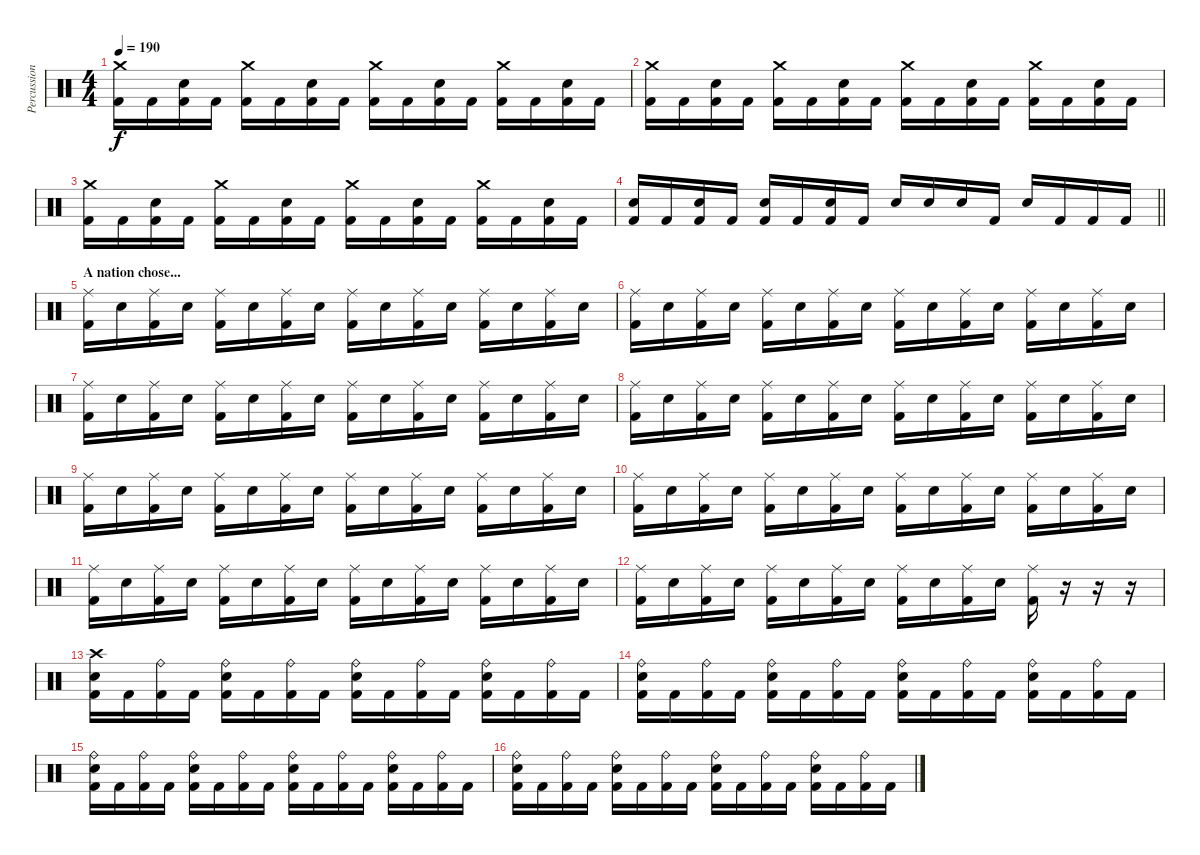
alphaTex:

\track ("Percussion" "Percussion") {instrument percussion}
\staff {score}
\articulation defaults
\ts (4 4)
\tempo 190
\clef neutral
\ks c
("Crash medium (hit)" "Kick (hit) 2").16{dy f} "Kick (hit) 2".16 ("Snare (hit) 2" "Kick (hit) 2").16 "Kick (hit) 2".16 ("Crash medium (hit)" "Kick (hit) 2").16 "Kick (hit) 2".16 ("Snare (hit) 2" "Kick (hit) 2").16 "Kick (hit) 2".16 ("Crash medium (hit)" "Kick (hit) 2").16 "Kick (hit) 2".16 ("Snare (hit) 2" "Kick (hit) 2").16 "Kick (hit) 2".16 ("Crash medium (hit)" "Kick (hit) 2").16 "Kick (hit) 2".16 ("Snare (hit) 2" "Kick (hit) 2").16 "Kick (hit) 2".16 |
("Crash medium (hit)" "Kick (hit) 2").16 "Kick (hit) 2".16 ("Snare (hit) 2" "Kick (hit) 2").16 "Kick (hit) 2".16 ("Crash medium (hit)" "Kick (hit) 2").16 "Kick (hit) 2".16 ("Snare (hit) 2" "Kick (hit) 2").16 "Kick (hit) 2".16 ("Crash medium (hit)" "Kick (hit) 2").16 "Kick (hit) 2".16 ("Snare (hit) 2" "Kick (hit) 2").16 "Kick (hit) 2".16 ("Crash medium (hit)" "Kick (hit) 2").16 "Kick (hit) 2".16 ("Snare (hit) 2" "Kick (hit) 2").16 "Kick (hit) 2".16 |
("Crash medium (hit)" "Kick (hit) 2").16 "Kick (hit) 2".16 ("Snare (hit) 2" "Kick (hit) 2").16 "Kick (hit) 2".16 ("Crash medium (hit)" "Kick (hit) 2").16 "Kick (hit) 2".16 ("Snare (hit) 2" "Kick (hit) 2").16 "Kick (hit) 2".16 ("Crash medium (hit)" "Kick (hit) 2").16 "Kick (hit) 2".16 ("Snare (hit) 2" "Kick (hit) 2").16 "Kick (hit) 2".16 ("Crash medium (hit)" "Kick (hit) 2").16 "Kick (hit) 2".16 ("Snare (hit) 2" "Kick (hit) 2").16 "Kick (hit) 2".16 |
\barLineRight lightlight
("Snare (hit) 2" "Kick (hit) 2").16 "Kick (hit) 2".16 ("Snare (hit) 2" "Kick (hit) 2").16 "Kick (hit) 2".16 ("Snare (hit) 2" "Kick (hit) 2").16 "Kick (hit) 2".16 ("Snare (hit) 2" "Kick (hit) 2").16 "Kick (hit) 2".16 "Snare (hit) 2".16 "Snare (hit) 2".16 "Snare (hit) 2".16 "Kick (hit) 2".16 "Snare (hit) 2".16 "Kick (hit) 2".16 "Kick (hit) 2".16 "Kick (hit) 2".16 |
\section ("" "A nation chose... ")
("Ride (middle)" "Kick (hit) 2").16 "Snare (hit) 2".16 ("Ride (middle)" "Kick (hit) 2").16 "Snare (hit) 2".16 ("Ride (middle)" "Kick (hit) 2").16 "Snare (hit) 2".16 ("Ride (middle)" "Kick (hit) 2").16 "Snare (hit) 2".16 ("Ride (middle)" "Kick (hit) 2").16 "Snare (hit) 2".16 ("Ride (middle)" "Kick (hit) 2").16 "Snare (hit) 2".16 ("Ride (middle)" "Kick (hit) 2").16 "Snare (hit) 2".16 ("Ride (middle)" "Kick (hit) 2").16 "Snare (hit) 2".16 |
("Ride (middle)" "Kick (hit) 2").16 "Snare (hit) 2".16 ("Ride (middle)" "Kick (hit) 2").16 "Snare (hit) 2".16 ("Ride (middle)" "Kick (hit) 2").16 "Snare (hit) 2".16 ("Ride (middle)" "Kick (hit) 2").16 "Snare (hit) 2".16 ("Ride (middle)" "Kick (hit) 2").16 "Snare (hit) 2".16 ("Ride (middle)" "Kick (hit) 2").16 "Snare (hit) 2".16 ("Ride (middle)" "Kick (hit) 2").16 "Snare (hit) 2".16 ("Ride (middle)" "Kick (hit) 2").16 "Snare (hit) 2".16 |
("Ride (middle)" "Kick (hit) 2").16 "Snare (hit) 2".16 ("Ride (middle)" "Kick (hit) 2").16 "Snare (hit) 2".16 ("Ride (middle)" "Kick (hit) 2").16 "Snare (hit) 2".16 ("Ride (middle)" "Kick (hit) 2").16 "Snare (hit) 2".16 ("Ride (middle)" "Kick (hit) 2").16 "Snare (hit) 2".16 ("Ride (middle)" "Kick (hit) 2").16 "Snare (hit) 2".16 ("Ride (middle)" "Kick (hit) 2").16 "Snare (hit) 2".16 ("Ride (middle)" "Kick (hit) 2").16 "Snare (hit) 2".16 |
("Ride (middle)" "Kick (hit) 2").16 "Snare (hit) 2".16 ("Ride (middle)" "Kick (hit) 2").16 "Snare (hit) 2".16 ("Ride (middle)" "Kick (hit) 2").16 "Snare (hit) 2".16 ("Ride (middle)" "Kick (hit) 2").16 "Snare (hit) 2".16 ("Ride (middle)" "Kick (hit) 2").16 "Snare (hit) 2".16 ("Ride (middle)" "Kick (hit) 2").16 "Snare (hit) 2".16 ("Ride (middle)" "Kick (hit) 2").16 "Snare (hit) 2".16 ("Ride (middle)" "Kick (hit) 2").16 "Snare (hit) 2".16 |
("Ride (middle)" "Kick (hit) 2").16 "Snare (hit) 2".16 ("Ride (middle)" "Kick (hit) 2").16 "Snare (hit) 2".16 ("Ride (middle)" "Kick (hit) 2").16 "Snare (hit) 2".16 ("Ride (middle)" "Kick (hit) 2").16 "Snare (hit) 2".16 ("Ride (middle)" "Kick (hit) 2").16 "Snare (hit) 2".16 ("Ride (middle)" "Kick (hit) 2").16 "Snare (hit) 2".16 ("Ride (middle)" "Kick (hit) 2").16 "Snare (hit) 2".16 ("Ride (middle)" "Kick (hit) 2").16 "Snare (hit) 2".16 |
("Ride (middle)" "Kick (hit) 2").16 "Snare (hit) 2".16 ("Ride (middle)" "Kick (hit) 2").16 "Snare (hit) 2".16 ("Ride (middle)" "Kick (hit) 2").16 "Snare (hit) 2".16 ("Ride (middle)" "Kick (hit) 2").16 "Snare (hit) 2".16 ("Ride (middle)" "Kick (hit) 2").16 "Snare (hit) 2".16 ("Ride (middle)" "Kick (hit) 2").16 "Snare (hit) 2".16 ("Ride (middle)" "Kick (hit) 2").16 "Snare (hit) 2".16 ("Ride (middle)" "Kick (hit) 2").16 "Snare (hit) 2".16 |
("Ride (middle)" "Kick (hit) 2").16 "Snare (hit) 2".16 ("Ride (middle)" "Kick (hit) 2").16 "Snare (hit) 2".16 ("Ride (middle)" "Kick (hit) 2").16 "Snare (hit) 2".16 ("Ride (middle)" "Kick (hit) 2").16 "Snare (hit) 2".16 ("Ride (middle)" "Kick (hit) 2").16 "Snare (hit) 2".16 ("Ride (middle)" "Kick (hit) 2").16 "Snare (hit) 2".16 ("Ride (middle)" "Kick (hit) 2").16 "Snare (hit) 2".16 ("Ride (middle)" "Kick (hit) 2").16 "Snare (hit) 2".16 |
("Ride (middle)" "Kick (hit) 2").16 "Snare (hit) 2".16 ("Ride (middle)" "Kick (hit) 2").16 "Snare (hit) 2".16 ("Ride (middle)" "Kick (hit) 2").16 "Snare (hit) 2".16 ("Ride (middle)" "Kick (hit) 2").16 "Snare (hit) 2".16 ("Ride (middle)" "Kick (hit) 2").16 "Snare (hit) 2".16 ("Ride (middle)" "Kick (hit) 2").16 "Snare (hit) 2".16 ("Ride (middle)" "Kick (hit) 2").16 r.16 r.16 r.16 |
("Crash high (hit)" "Snare (hit) 2" "Kick (hit) 2").16 "Kick (hit) 2".16 ("Ride (bell)" "Kick (hit) 2").16 "Kick (hit) 2".16 ("Ride (bell)" "Snare (hit) 2" "Kick (hit) 2").16 "Kick (hit) 2".16 ("Ride (bell)" "Kick (hit) 2").16 "Kick (hit) 2".16 ("Ride (bell)" "Snare (hit) 2" "Kick (hit) 2").16 "Kick (hit) 2".16 ("Ride (bell)" "Kick (hit) 2").16 "Kick (hit) 2".16 ("Ride (bell)" "Snare (hit) 2" "Kick (hit) 2").16 "Kick (hit) 2".16 ("Ride (bell)" "Kick (hit) 2").16 "Kick (hit) 2".16 |
("Ride (bell)" "Snare (hit) 2" "Kick (hit) 2").16 "Kick (hit) 2".16 ("Ride (bell)" "Kick (hit) 2").16 "Kick (hit) 2".16 ("Ride (bell)" "Snare (hit) 2" "Kick (hit) 2").16 "Kick (hit) 2".16 ("Ride (bell)" "Kick (hit) 2").16 "Kick (hit) 2".16 ("Ride (bell)" "Snare (hit) 2" "Kick (hit) 2").16 "Kick (hit) 2".16 ("Ride (bell)" "Kick (hit) 2").16 "Kick (hit) 2".16 ("Ride (bell)" "Snare (hit) 2" "Kick (hit) 2").16 "Kick (hit) 2".16 ("Ride (bell)" "Kick (hit) 2").16 "Kick (hit) 2".16 |
("Ride (bell)" "Snare (hit) 2" "Kick (hit) 2").16 "Kick (hit) 2".16 ("Ride (bell)" "Kick (hit) 2").16 "Kick (hit) 2".16 ("Ride (bell)" "Snare (hit) 2" "Kick (hit) 2").16 "Kick (hit) 2".16 ("Ride (bell)" "Kick (hit) 2").16 "Kick (hit) 2".16 ("Ride (bell)" "Snare (hit) 2" "Kick (hit) 2").16 "Kick (hit) 2".16 ("Ride (bell)" "Kick (hit) 2").16 "Kick (hit) 2".16 ("Ride (bell)" "Snare (hit) 2" "Kick (hit) 2").16 "Kick (hit) 2".16 ("Ride (bell)" "Kick (hit) 2").16 "Kick (hit) 2".16 |
("Ride (bell)" "Snare (hit) 2" "Kick (hit) 2").16 "Kick (hit) 2".16 ("Ride (bell)" "Kick (hit) 2").16 "Kick (hit) 2".16 ("Ride (bell)" "Snare (hit) 2" "Kick (hit) 2").16 "Kick (hit) 2".16 ("Ride (bell)" "Kick (hit) 2").16 "Kick (hit) 2".16 ("Ride (bell)" "Snare (hit) 2" "Kick (hit) 2").16 "Kick (hit) 2".16 ("Ride (bell)" "Kick (hit) 2").16 "Kick (hit) 2".16 ("Ride (bell)" "Snare (hit) 2" "Kick (hit) 2").16 "Kick (hit) 2".16 ("Ride (bell)" "Kick (hit) 2").16 "Kick (hit) 2".16
